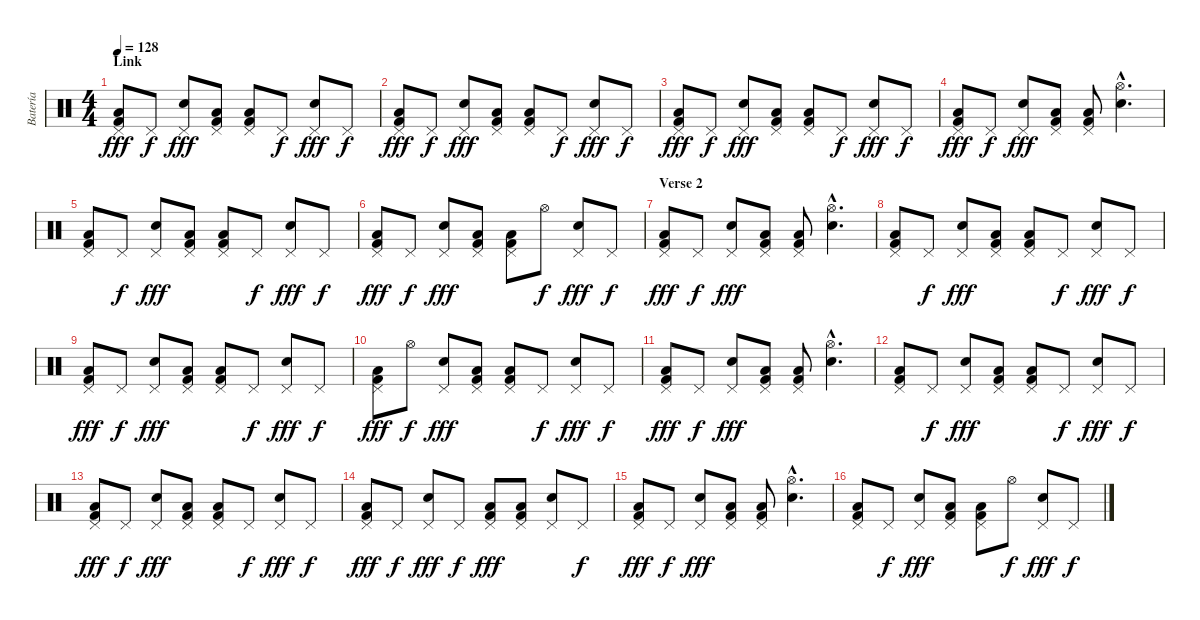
\track ("Batería" "Batería") {instrument percussion}
\staff {score}
\articulation defaults
\ts (4 4)
\section ("" "Link")
\tempo 128
\clef neutral
\ks c
("Low Floor Tom (hit)" "Kick (hit) 2" "Pedal Hi-Hat (hit)").8{dy fff} "Pedal Hi-Hat (hit)".8{dy f} ("Electric Snare (hit)" "Pedal Hi-Hat (hit)").8{dy fff} ("Low Floor Tom (hit)" "Kick (hit) 2" "Pedal Hi-Hat (hit)").8 ("Low Floor Tom (hit)" "Kick (hit) 2" "Pedal Hi-Hat (hit)").8 "Pedal Hi-Hat (hit)".8{dy f} ("Electric Snare (hit)" "Pedal Hi-Hat (hit)").8{dy fff} "Pedal Hi-Hat (hit)".8{dy f} |
("Low Floor Tom (hit)" "Kick (hit) 2" "Pedal Hi-Hat (hit)").8{dy fff} "Pedal Hi-Hat (hit)".8{dy f} ("Electric Snare (hit)" "Pedal Hi-Hat (hit)").8{dy fff} ("Low Floor Tom (hit)" "Kick (hit) 2" "Pedal Hi-Hat (hit)").8 ("Low Floor Tom (hit)" "Kick (hit) 2" "Pedal Hi-Hat (hit)").8 "Pedal Hi-Hat (hit)".8{dy f} ("Electric Snare (hit)" "Pedal Hi-Hat (hit)").8{dy fff} "Pedal Hi-Hat (hit)".8{dy f} |
("Low Floor Tom (hit)" "Kick (hit) 2" "Pedal Hi-Hat (hit)").8{dy fff} "Pedal Hi-Hat (hit)".8{dy f} ("Electric Snare (hit)" "Pedal Hi-Hat (hit)").8{dy fff} ("Low Floor Tom (hit)" "Kick (hit) 2" "Pedal Hi-Hat (hit)").8 ("Low Floor Tom (hit)" "Kick (hit) 2" "Pedal Hi-Hat (hit)").8 "Pedal Hi-Hat (hit)".8{dy f} ("Electric Snare (hit)" "Pedal Hi-Hat (hit)").8{dy fff} "Pedal Hi-Hat (hit)".8{dy f} |
("Low Floor Tom (hit)" "Kick (hit) 2" "Pedal Hi-Hat (hit)").8{dy fff} "Pedal Hi-Hat (hit)".8{dy f} ("Electric Snare (hit)" "Pedal Hi-Hat (hit)").8{dy fff} ("Low Floor Tom (hit)" "Kick (hit) 2" "Pedal Hi-Hat (hit)").8 ("Low Floor Tom (hit)" "Kick (hit) 2" "Pedal Hi-Hat (hit)").8 ("Electric Snare (hit)"{hac} "Hi-Hat (open)"{hac}).4{d} |
("Low Floor Tom (hit)" "Kick (hit) 2" "Pedal Hi-Hat (hit)").8 "Pedal Hi-Hat (hit)".8{dy f} ("Electric Snare (hit)" "Pedal Hi-Hat (hit)").8{dy fff} ("Low Floor Tom (hit)" "Kick (hit) 2" "Pedal Hi-Hat (hit)").8 ("Low Floor Tom (hit)" "Kick (hit) 2" "Pedal Hi-Hat (hit)").8 "Pedal Hi-Hat (hit)".8{dy f} ("Electric Snare (hit)" "Pedal Hi-Hat (hit)").8{dy fff} "Pedal Hi-Hat (hit)".8{dy f} |
("Low Floor Tom (hit)" "Kick (hit) 2" "Pedal Hi-Hat (hit)").8{dy fff} "Pedal Hi-Hat (hit)".8{dy f} ("Electric Snare (hit)" "Pedal Hi-Hat (hit)").8{dy fff} ("Low Floor Tom (hit)" "Kick (hit) 2" "Pedal Hi-Hat (hit)").8 ("Low Floor Tom (hit)" "Kick (hit) 2" "Pedal Hi-Hat (hit)").8 "Hi-Hat (open)".8{dy f} ("Electric Snare (hit)" "Pedal Hi-Hat (hit)").8{dy fff} "Pedal Hi-Hat (hit)".8{dy f} |
\section ("" "Verse 2")
("Low Floor Tom (hit)" "Kick (hit) 2" "Pedal Hi-Hat (hit)").8{dy fff} "Pedal Hi-Hat (hit)".8{dy f} ("Electric Snare (hit)" "Pedal Hi-Hat (hit)").8{dy fff} ("Low Floor Tom (hit)" "Kick (hit) 2" "Pedal Hi-Hat (hit)").8 ("Low Floor Tom (hit)" "Kick (hit) 2" "Pedal Hi-Hat (hit)").8 ("Electric Snare (hit)"{hac} "Hi-Hat (open)"{hac}).4{d} |
("Low Floor Tom (hit)" "Kick (hit) 2" "Pedal Hi-Hat (hit)").8 "Pedal Hi-Hat (hit)".8{dy f} ("Electric Snare (hit)" "Pedal Hi-Hat (hit)").8{dy fff} ("Low Floor Tom (hit)" "Kick (hit) 2" "Pedal Hi-Hat (hit)").8 ("Low Floor Tom (hit)" "Kick (hit) 2" "Pedal Hi-Hat (hit)").8 "Pedal Hi-Hat (hit)".8{dy f} ("Electric Snare (hit)" "Pedal Hi-Hat (hit)").8{dy fff} "Pedal Hi-Hat (hit)".8{dy f} |
("Low Floor Tom (hit)" "Kick (hit) 2" "Pedal Hi-Hat (hit)").8{dy fff} "Pedal Hi-Hat (hit)".8{dy f} ("Electric Snare (hit)" "Pedal Hi-Hat (hit)").8{dy fff} ("Low Floor Tom (hit)" "Kick (hit) 2" "Pedal Hi-Hat (hit)").8 ("Low Floor Tom (hit)" "Kick (hit) 2" "Pedal Hi-Hat (hit)").8 "Pedal Hi-Hat (hit)".8{dy f} ("Electric Snare (hit)" "Pedal Hi-Hat (hit)").8{dy fff} "Pedal Hi-Hat (hit)".8{dy f} |
("Low Floor Tom (hit)" "Kick (hit) 2" "Pedal Hi-Hat (hit)").8{dy fff} "Hi-Hat (open)".8{dy f} ("Electric Snare (hit)" "Pedal Hi-Hat (hit)").8{dy fff} ("Low Floor Tom (hit)" "Kick (hit) 2" "Pedal Hi-Hat (hit)").8 ("Low Floor Tom (hit)" "Kick (hit) 2" "Pedal Hi-Hat (hit)").8 "Pedal Hi-Hat (hit)".8{dy f} ("Electric Snare (hit)" "Pedal Hi-Hat (hit)").8{dy fff} "Pedal Hi-Hat (hit)".8{dy f} |
("Low Floor Tom (hit)" "Kick (hit) 2" "Pedal Hi-Hat (hit)").8{dy fff} "Pedal Hi-Hat (hit)".8{dy f} ("Electric Snare (hit)" "Pedal Hi-Hat (hit)").8{dy fff} ("Low Floor Tom (hit)" "Kick (hit) 2" "Pedal Hi-Hat (hit)").8 ("Low Floor Tom (hit)" "Kick (hit) 2" "Pedal Hi-Hat (hit)").8 ("Electric Snare (hit)"{hac} "Hi-Hat (open)"{hac}).4{d} |
("Low Floor Tom (hit)" "Kick (hit) 2" "Pedal Hi-Hat (hit)").8 "Pedal Hi-Hat (hit)".8{dy f} ("Electric Snare (hit)" "Pedal Hi-Hat (hit)").8{dy fff} ("Low Floor Tom (hit)" "Kick (hit) 2" "Pedal Hi-Hat (hit)").8 ("Low Floor Tom (hit)" "Kick (hit) 2" "Pedal Hi-Hat (hit)").8 "Pedal Hi-Hat (hit)".8{dy f} ("Electric Snare (hit)" "Pedal Hi-Hat (hit)").8{dy fff} "Pedal Hi-Hat (hit)".8{dy f} |
("Low Floor Tom (hit)" "Kick (hit) 2" "Pedal Hi-Hat (hit)").8{dy fff} "Pedal Hi-Hat (hit)".8{dy f} ("Electric Snare (hit)" "Pedal Hi-Hat (hit)").8{dy fff} ("Low Floor Tom (hit)" "Kick (hit) 2" "Pedal Hi-Hat (hit)").8 ("Low Floor Tom (hit)" "Kick (hit) 2" "Pedal Hi-Hat (hit)").8 "Pedal Hi-Hat (hit)".8{dy f} ("Electric Snare (hit)" "Pedal Hi-Hat (hit)").8{dy fff} "Pedal Hi-Hat (hit)".8{dy f} |
("Low Floor Tom (hit)" "Kick (hit) 2" "Pedal Hi-Hat (hit)").8{dy fff} "Pedal Hi-Hat (hit)".8{dy f} ("Electric Snare (hit)" "Pedal Hi-Hat (hit)").8{dy fff} "Pedal Hi-Hat (hit)".8{dy f} ("Low Floor Tom (hit)" "Kick (hit) 2" "Pedal Hi-Hat (hit)").8{dy fff} ("Low Floor Tom (hit)" "Kick (hit) 2" "Pedal Hi-Hat (hit)").8 ("Electric Snare (hit)" "Pedal Hi-Hat (hit)").8 "Pedal Hi-Hat (hit)".8{dy f} |
("Low Floor Tom (hit)" "Kick (hit) 2" "Pedal Hi-Hat (hit)").8{dy fff} "Pedal Hi-Hat (hit)".8{dy f} ("Electric Snare (hit)" "Pedal Hi-Hat (hit)").8{dy fff} ("Low Floor Tom (hit)" "Kick (hit) 2" "Pedal Hi-Hat (hit)").8 ("Low Floor Tom (hit)" "Kick (hit) 2" "Pedal Hi-Hat (hit)").8 ("Electric Snare (hit)"{hac} "Hi-Hat (open)"{hac}).4{d} |
("Low Floor Tom (hit)" "Kick (hit) 2" "Pedal Hi-Hat (hit)").8 "Pedal Hi-Hat (hit)".8{dy f} ("Electric Snare (hit)" "Pedal Hi-Hat (hit)").8{dy fff} ("Low Floor Tom (hit)" "Kick (hit) 2" "Pedal Hi-Hat (hit)").8 ("Low Floor Tom (hit)" "Kick (hit) 2" "Pedal Hi-Hat (hit)").8 "Hi-Hat (open)".8{dy f} ("Electric Snare (hit)" "Pedal Hi-Hat (hit)").8{dy fff} "Pedal Hi-Hat (hit)".8{dy f}
